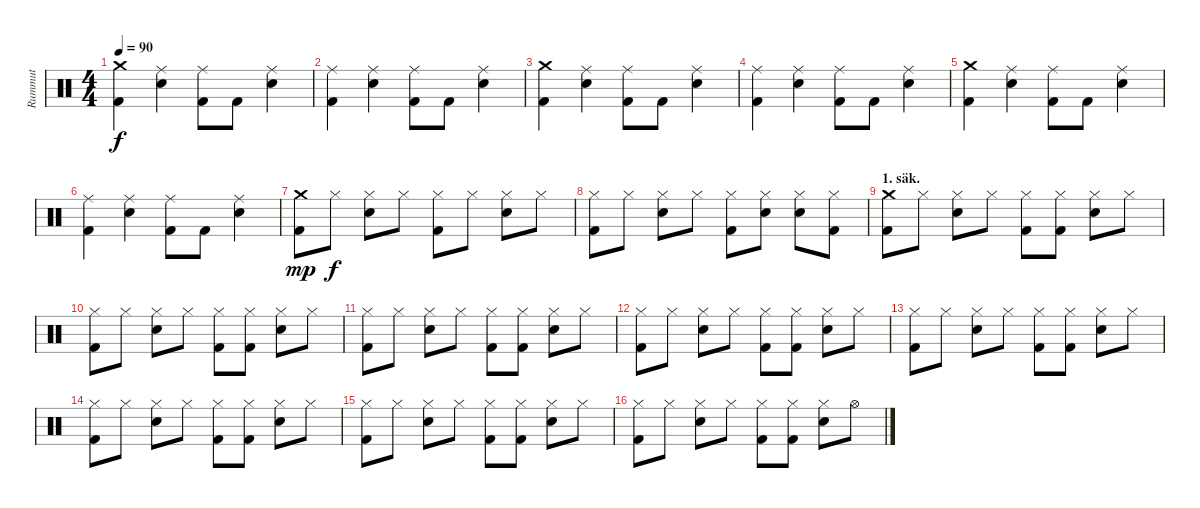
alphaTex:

\track ("Rummut" "Rummut") {instrument percussion}
\staff {score}
\articulation defaults
\ts (4 4)
\tempo 90
\clef neutral
\ks c
("Kick (hit) 2" "Crash medium (hit)").4{dy f} ("Ride (middle)" "Snare (hit) 2").4 ("Kick (hit) 2" "Ride (middle)").8 "Kick (hit) 2".8 ("Ride (middle)" "Snare (hit) 2").4 |
("Kick (hit) 2" "Ride (middle)").4 ("Ride (middle)" "Snare (hit) 2").4 ("Kick (hit) 2" "Ride (middle)").8 "Kick (hit) 2".8 ("Ride (middle)" "Snare (hit) 2").4 |
("Kick (hit) 2" "Crash medium (hit)").4 ("Ride (middle)" "Snare (hit) 2").4 ("Kick (hit) 2" "Ride (middle)").8 "Kick (hit) 2".8 ("Ride (middle)" "Snare (hit) 2").4 |
("Kick (hit) 2" "Ride (middle)").4 ("Ride (middle)" "Snare (hit) 2").4 ("Kick (hit) 2" "Ride (middle)").8 "Kick (hit) 2".8 ("Ride (middle)" "Snare (hit) 2").4 |
("Kick (hit) 2" "Crash medium (hit)").4 ("Ride (middle)" "Snare (hit) 2").4 ("Kick (hit) 2" "Ride (middle)").8 "Kick (hit) 2".8 ("Ride (middle)" "Snare (hit) 2").4 |
("Kick (hit) 2" "Ride (middle)").4 ("Ride (middle)" "Snare (hit) 2").4 ("Kick (hit) 2" "Ride (middle)").8 "Kick (hit) 2".8 ("Ride (middle)" "Snare (hit) 2").4 |
("Kick (hit) 2" "Crash medium (hit)").8{dy mp} "Hi-Hat (closed)".8{dy f} ("Hi-Hat (closed)" "Snare (hit) 2").8 "Hi-Hat (closed)".8 ("Kick (hit) 2" "Hi-Hat (closed)").8 "Hi-Hat (closed)".8 ("Hi-Hat (closed)" "Snare (hit) 2").8 "Hi-Hat (closed)".8 |
("Kick (hit) 2" "Hi-Hat (closed)").8 "Hi-Hat (closed)".8 ("Hi-Hat (closed)" "Snare (hit) 2").8 "Hi-Hat (closed)".8 ("Kick (hit) 2" "Hi-Hat (closed)").8 ("Hi-Hat (closed)" "Snare (hit) 2").8 ("Hi-Hat (closed)" "Snare (hit) 2").8 ("Kick (hit) 2" "Hi-Hat (closed)").8 |
\section ("" "1. säk.")
("Kick (hit) 2" "Crash medium (hit)").8 "Hi-Hat (closed)".8 ("Hi-Hat (closed)" "Snare (hit) 2").8 "Hi-Hat (closed)".8 ("Kick (hit) 2" "Hi-Hat (closed)").8 ("Kick (hit) 2" "Hi-Hat (closed)").8 ("Hi-Hat (closed)" "Snare (hit) 2").8 "Hi-Hat (closed)".8 |
("Kick (hit) 2" "Hi-Hat (closed)").8 "Hi-Hat (closed)".8 ("Hi-Hat (closed)" "Snare (hit) 2").8 "Hi-Hat (closed)".8 ("Kick (hit) 2" "Hi-Hat (closed)").8 ("Kick (hit) 2" "Hi-Hat (closed)").8 ("Hi-Hat (closed)" "Snare (hit) 2").8 "Hi-Hat (closed)".8 |
("Kick (hit) 2" "Hi-Hat (closed)").8 "Hi-Hat (closed)".8 ("Hi-Hat (closed)" "Snare (hit) 2").8 "Hi-Hat (closed)".8 ("Kick (hit) 2" "Hi-Hat (closed)").8 ("Kick (hit) 2" "Hi-Hat (closed)").8 ("Hi-Hat (closed)" "Snare (hit) 2").8 "Hi-Hat (closed)".8 |
("Kick (hit) 2" "Hi-Hat (closed)").8 "Hi-Hat (closed)".8 ("Hi-Hat (closed)" "Snare (hit) 2").8 "Hi-Hat (closed)".8 ("Kick (hit) 2" "Hi-Hat (closed)").8 ("Kick (hit) 2" "Hi-Hat (closed)").8 ("Hi-Hat (closed)" "Snare (hit) 2").8 "Hi-Hat (closed)".8 |
("Kick (hit) 2" "Hi-Hat (closed)").8 "Hi-Hat (closed)".8 ("Hi-Hat (closed)" "Snare (hit) 2").8 "Hi-Hat (closed)".8 ("Kick (hit) 2" "Hi-Hat (closed)").8 ("Kick (hit) 2" "Hi-Hat (closed)").8 ("Hi-Hat (closed)" "Snare (hit) 2").8 "Hi-Hat (closed)".8 |
("Kick (hit) 2" "Hi-Hat (closed)").8 "Hi-Hat (closed)".8 ("Hi-Hat (closed)" "Snare (hit) 2").8 "Hi-Hat (closed)".8 ("Kick (hit) 2" "Hi-Hat (closed)").8 ("Kick (hit) 2" "Hi-Hat (closed)").8 ("Hi-Hat (closed)" "Snare (hit) 2").8 "Hi-Hat (closed)".8 |
("Kick (hit) 2" "Hi-Hat (closed)").8 "Hi-Hat (closed)".8 ("Hi-Hat (closed)" "Snare (hit) 2").8 "Hi-Hat (closed)".8 ("Kick (hit) 2" "Hi-Hat (closed)").8 ("Kick (hit) 2" "Hi-Hat (closed)").8 ("Hi-Hat (closed)" "Snare (hit) 2").8 "Hi-Hat (closed)".8 |
("Kick (hit) 2" "Hi-Hat (closed)").8 "Hi-Hat (closed)".8 ("Hi-Hat (closed)" "Snare (hit) 2").8 "Hi-Hat (closed)".8 ("Kick (hit) 2" "Hi-Hat (closed)").8 ("Kick (hit) 2" "Hi-Hat (closed)").8 ("Hi-Hat (closed)" "Snare (hit) 2").8 "Hi-Hat (open)".8
